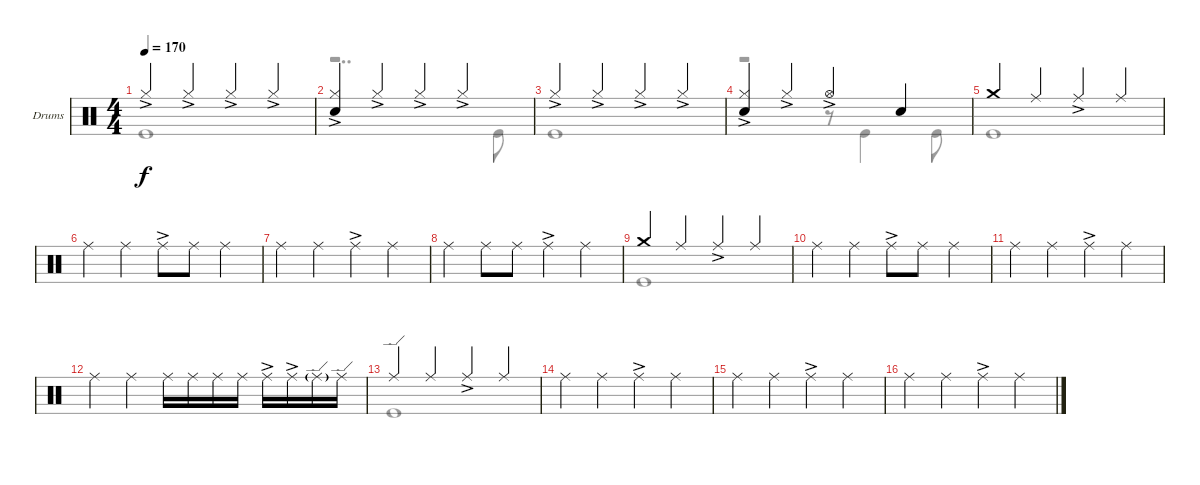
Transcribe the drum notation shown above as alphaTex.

\defaultSystemsLayout 4
\bracketExtendMode groupsimilarinstruments
\firstSystemTrackNameOrientation horizontal
\otherSystemsTrackNameOrientation horizontal
\track ("Drumkit" "Drums") {instrument percussion}
\staff {score}
\articulation defaults
\voice
\ts (4 4)
\tempo 170
\clef neutral
\scale
1.02648
\ks c "Hi-Hat (closed)"{ac}.4{dy f} "Hi-Hat (closed)"{ac}.4 "Hi-Hat (closed)"{ac}.4 "Hi-Hat (closed)"{ac}.4
|
\scale
0.973518 ("Hi-Hat (closed)"{ac} "Snare (hit) 2").4 "Hi-Hat (closed)"{ac}.4 "Hi-Hat (closed)"{ac}.4 "Hi-Hat (closed)"{ac}.4 |
\scale
1.02648 "Hi-Hat (closed)"{ac}.4 "Hi-Hat (closed)"{ac}.4 "Hi-Hat (closed)"{ac}.4 "Hi-Hat (closed)"{ac}.4 |
\scale
0.973518 ("Hi-Hat (closed)"{ac} "Snare (hit) 2").4 "Hi-Hat (closed)"{ac}.4 "Hi-Hat (open)"{ac}.4 "Snare (hit) 2".4 |
\scale
1.02648 "Crash medium (hit)".4 "Ride (middle)".4 "Ride (middle)"{ac}.4 "Ride (middle)".4 |
\scale
0.973518 "Ride (middle)".4 "Ride (middle)".4 "Ride (middle)"{ac}.8 "Ride (middle)".8 "Ride (middle)".4 |
\scale
1.02648 "Ride (middle)".4 "Ride (middle)".4 "Ride (middle)"{ac}.4 "Ride (middle)".4 |
\scale
0.973518 "Ride (middle)".4 "Ride (middle)".8 "Ride (middle)".8 "Ride (middle)"{ac}.4 "Ride (middle)".4 |
\scale
1.02648 "Crash medium (hit)".4 "Ride (middle)".4 "Ride (middle)"{ac}.4 "Ride (middle)".4 |
\scale
0.973518 "Ride (middle)".4 "Ride (middle)".4 "Ride (middle)"{ac}.8 "Ride (middle)".8 "Ride (middle)".4 |
\scale
1.02648 "Ride (middle)".4 "Ride (middle)".4 "Ride (middle)"{ac}.4 "Ride (middle)".4 |
\scale
0.973518 "Ride (middle)".4 "Ride (middle)".4 "Ride (middle)".16 "Ride (middle)".16 "Ride (middle)".16 "Ride (middle)".16 "Ride (middle)"{ac}.16 "Ride (middle)"{ac}.16 "Ride (edge)"{g}.16 "Ride (edge)".16 |
\scale
1.02648 "Ride (edge)".4 "Ride (middle)".4 "Ride (middle)"{ac}.4 "Ride (middle)".4 |
\scale
0.973518 "Ride (middle)".4 "Ride (middle)".4 "Ride (middle)"{ac}.4 "Ride (middle)".4 |
\scale
1.02648 "Ride (middle)".4 "Ride (middle)".4 "Ride (middle)"{ac}.4 "Ride (middle)".4 |
\scale
0.973518 "Ride (middle)".4 "Ride (middle)".4 "Ride (middle)"{ac}.4 "Ride (middle)".4
\voice
\clef neutral
\ottava regular
\simile none
\scale
1.02648
\ks c "Kick (hit)".1{dy f}
|
\scale
0.973518 r.2{dd} "Kick (hit)".8 |
\scale
1.02648 "Kick (hit)".1 |
\scale
0.973518 r.2 r.8 "Kick (hit)".4 "Kick (hit)".8 |
\scale
1.02648 "Kick (hit)".1 |
\scale
0.973518 |
\scale
1.02648 |
\scale
0.973518 |
\scale
1.02648 "Kick (hit)".1 |
\scale
0.973518 |
\scale
1.02648 |
\scale
0.973518 |
\scale
1.02648 "Kick (hit)".1 |
\scale
0.973518 |
\scale
1.02648 |
\scale
0.973518
